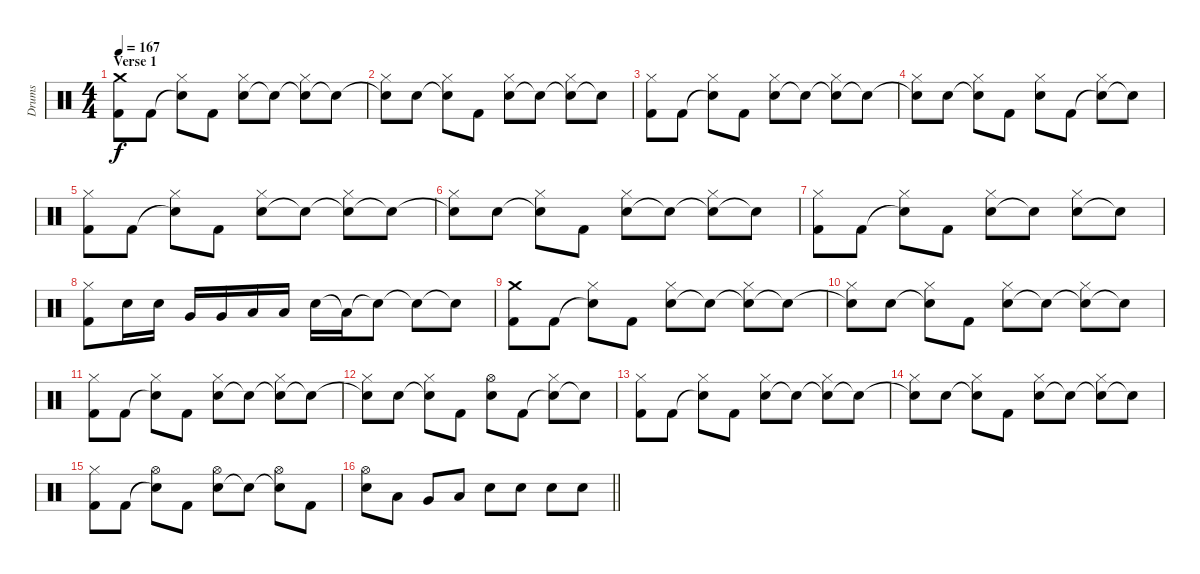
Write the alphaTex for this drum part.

\track ("Drums" "Drums") {instrument percussion}
\staff {score}
\articulation defaults
\ts (4 4)
\section ("" "Verse 1")
\tempo 167
\clef neutral
\ks c
("Kick (hit) 2" "Crash medium (hit)").8{dy f} "Kick (hit) 2".8 ("Snare (hit)"{t} "Hi-Hat (closed)").8 "Kick (hit) 2".8 ("Electric Snare (hit)" "Hi-Hat (closed)").8 "Snare (hit)"{t}.8 ("Snare (hit)"{t} "Hi-Hat (closed)").8 "Electric Snare (hit)"{t}.8 |
("Snare (hit)"{t} "Hi-Hat (closed)").8 "Electric Snare (hit)".8 ("Electric Snare (hit)"{t} "Hi-Hat (closed)").8 "Kick (hit) 2".8 ("Electric Snare (hit)" "Hi-Hat (closed)").8 "Electric Snare (hit)"{t}.8 ("Snare (hit)"{t} "Hi-Hat (closed)").8 "Snare (hit)"{t}.8 |
("Kick (hit) 2" "Hi-Hat (closed)").8 "Kick (hit) 2".8 ("Snare (hit)"{t} "Hi-Hat (closed)").8 "Kick (hit) 2".8 ("Electric Snare (hit)" "Hi-Hat (closed)").8 "Snare (hit)"{t}.8 ("Snare (hit)"{t} "Hi-Hat (closed)").8 "Electric Snare (hit)"{t}.8 |
("Snare (hit)"{t} "Hi-Hat (closed)").8 "Electric Snare (hit)".8 ("Electric Snare (hit)"{t} "Hi-Hat (closed)").8 "Kick (hit) 2".8 ("Electric Snare (hit)" "Hi-Hat (closed)").8 "Kick (hit) 2".8 ("Snare (hit)"{t} "Hi-Hat (closed)").8 "Snare (hit)"{t}.8 |
("Kick (hit) 2" "Hi-Hat (closed)").8 "Kick (hit) 2".8 ("Snare (hit)"{t} "Hi-Hat (closed)").8 "Kick (hit) 2".8 ("Electric Snare (hit)" "Hi-Hat (closed)").8 "Snare (hit)"{t}.8 ("Snare (hit)"{t} "Hi-Hat (closed)").8 "Electric Snare (hit)"{t}.8 |
("Snare (hit)"{t} "Hi-Hat (closed)").8 "Electric Snare (hit)".8 ("Electric Snare (hit)"{t} "Hi-Hat (closed)").8 "Kick (hit) 2".8 ("Electric Snare (hit)" "Hi-Hat (closed)").8 "Electric Snare (hit)"{t}.8 ("Snare (hit)"{t} "Hi-Hat (closed)").8 "Snare (hit)"{t}.8 |
("Kick (hit) 2" "Hi-Hat (closed)").8 "Kick (hit) 2".8 ("Snare (hit)"{t} "Hi-Hat (closed)").8 "Kick (hit) 2".8 ("Electric Snare (hit)" "Hi-Hat (closed)").8 "Snare (hit)"{t}.8 ("Electric Snare (hit)" "Hi-Hat (closed)").8 "Electric Snare (hit)"{t}.8 |
("Kick (hit) 2" "Hi-Hat (closed)").8 "Electric Snare (hit)".16 "Electric Snare (hit)".16 "Very Low Tom (hit)".16 "Very Low Tom (hit)".16 "Low Floor Tom (hit)".16 "Low Floor Tom (hit)".16 "Electric Snare (hit)".16 "Low Floor Tom (hit)"{t}.16 "Electric Snare (hit)"{t}.8 "Snare (hit)"{t}.8 "Snare (hit)"{t}.8 |
("Kick (hit) 2" "Crash medium (hit)").8 "Kick (hit) 2".8 ("Snare (hit)"{t} "Hi-Hat (closed)").8 "Kick (hit) 2".8 ("Electric Snare (hit)" "Hi-Hat (closed)").8 "Snare (hit)"{t}.8 ("Snare (hit)"{t} "Hi-Hat (closed)").8 "Electric Snare (hit)"{t}.8 |
("Snare (hit)"{t} "Hi-Hat (closed)").8 "Electric Snare (hit)".8 ("Electric Snare (hit)"{t} "Hi-Hat (closed)").8 "Kick (hit) 2".8 ("Electric Snare (hit)" "Hi-Hat (closed)").8 "Electric Snare (hit)"{t}.8 ("Snare (hit)"{t} "Hi-Hat (closed)").8 "Snare (hit)"{t}.8 |
("Kick (hit) 2" "Hi-Hat (closed)").8 "Kick (hit) 2".8 ("Snare (hit)"{t} "Hi-Hat (closed)").8 "Kick (hit) 2".8 ("Electric Snare (hit)" "Hi-Hat (closed)").8 "Snare (hit)"{t}.8 ("Snare (hit)"{t} "Hi-Hat (closed)").8 "Electric Snare (hit)"{t}.8 |
("Snare (hit)"{t} "Hi-Hat (closed)").8 "Electric Snare (hit)".8 ("Electric Snare (hit)"{t} "Hi-Hat (closed)").8 "Kick (hit) 2".8 ("Electric Snare (hit)" "Hi-Hat (open)").8 "Kick (hit) 2".8 ("Snare (hit)"{t} "Hi-Hat (closed)").8 "Snare (hit)"{t}.8 |
("Kick (hit) 2" "Hi-Hat (closed)").8 "Kick (hit) 2".8 ("Snare (hit)"{t} "Hi-Hat (closed)").8 "Kick (hit) 2".8 ("Electric Snare (hit)" "Hi-Hat (closed)").8 "Snare (hit)"{t}.8 ("Snare (hit)"{t} "Hi-Hat (closed)").8 "Electric Snare (hit)"{t}.8 |
("Snare (hit)"{t} "Hi-Hat (closed)").8 "Electric Snare (hit)".8 ("Electric Snare (hit)"{t} "Hi-Hat (closed)").8 "Kick (hit) 2".8 ("Electric Snare (hit)" "Hi-Hat (closed)").8 "Electric Snare (hit)"{t}.8 ("Snare (hit)"{t} "Hi-Hat (closed)").8 "Snare (hit)"{t}.8 |
("Kick (hit) 2" "Hi-Hat (closed)").8 "Kick (hit) 2".8 ("Snare (hit)"{t} "Hi-Hat (open)").8 "Kick (hit) 2".8 ("Electric Snare (hit)" "Hi-Hat (open)").8 "Snare (hit)"{t}.8 ("Electric Snare (hit)"{t} "Hi-Hat (open)").8 "Kick (hit) 2".8 |
\barLineRight lightlight
("Electric Snare (hit)" "Hi-Hat (open)").8 "Low Tom (hit)".8 "Very Low Tom (hit)".8 "Low Floor Tom (hit)".8 "Electric Snare (hit)".8 "Electric Snare (hit)".8 "Electric Snare (hit)".8 "Electric Snare (hit)".8
